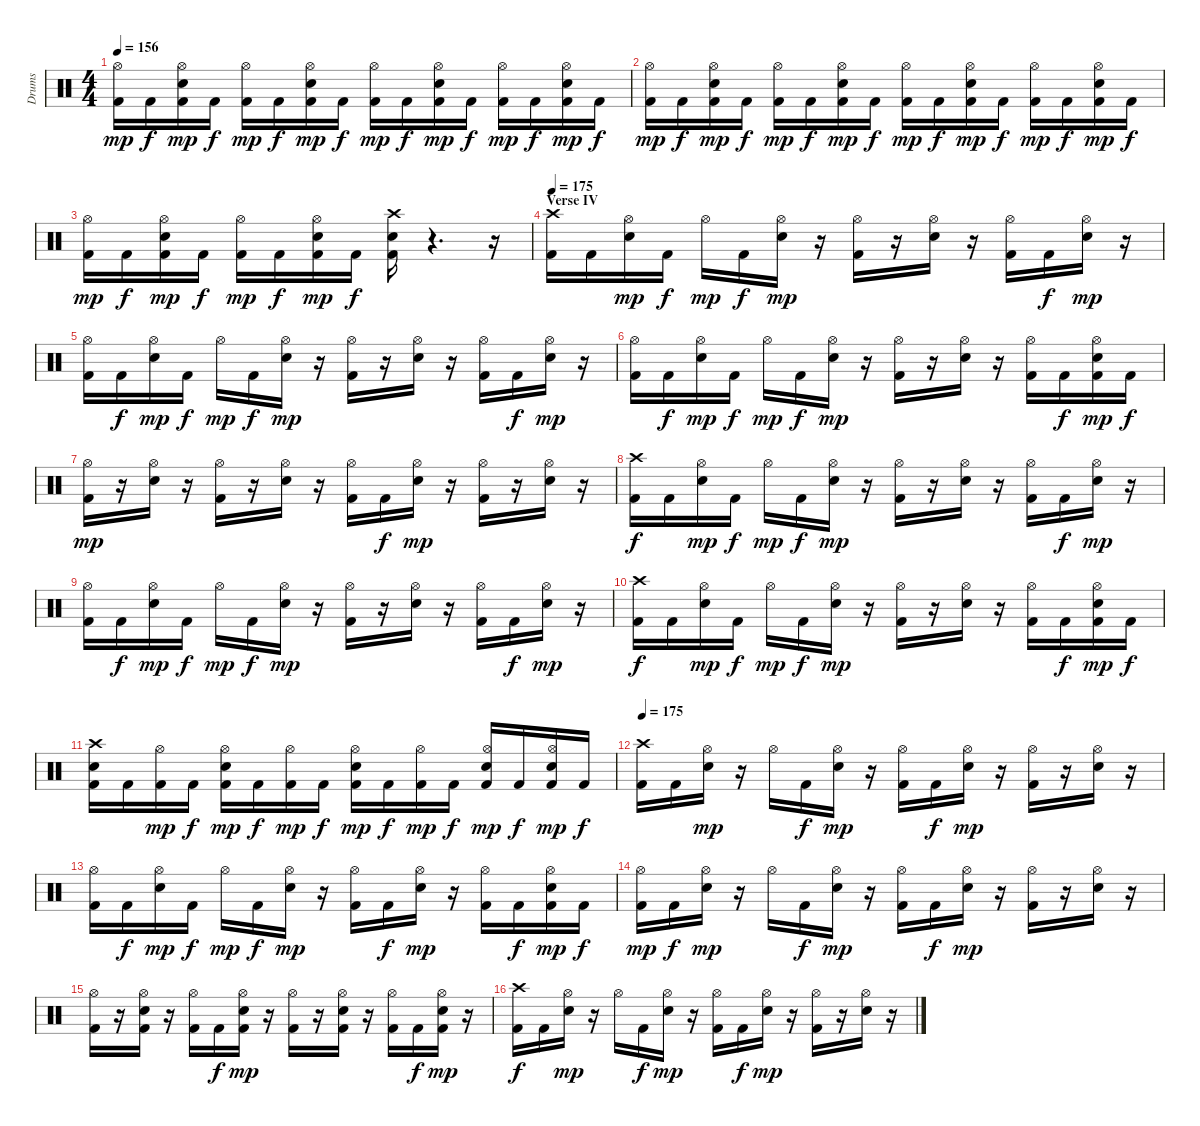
\track ("Drums" "Drums") {instrument percussion}
\staff {score}
\articulation defaults
\ts (4 4)
\tempo 156
\clef neutral
\ks c
("Kick (hit) 2" "Hi-Hat (open)").16{dy mp} "Kick (hit) 2".16{dy f} ("Snare (hit) 2" "Kick (hit) 2" "Hi-Hat (open)").16{dy mp} "Kick (hit) 2".16{dy f} ("Kick (hit) 2" "Hi-Hat (open)").16{dy mp} "Kick (hit) 2".16{dy f} ("Snare (hit) 2" "Kick (hit) 2" "Hi-Hat (open)").16{dy mp} "Kick (hit) 2".16{dy f} ("Kick (hit) 2" "Hi-Hat (open)").16{dy mp} "Kick (hit) 2".16{dy f} ("Snare (hit) 2" "Kick (hit) 2" "Hi-Hat (open)").16{dy mp} "Kick (hit) 2".16{dy f} ("Kick (hit) 2" "Hi-Hat (open)").16{dy mp} "Kick (hit) 2".16{dy f} ("Snare (hit) 2" "Kick (hit) 2" "Hi-Hat (open)").16{dy mp} "Kick (hit) 2".16{dy f} |
("Kick (hit) 2" "Hi-Hat (open)").16{dy mp} "Kick (hit) 2".16{dy f} ("Snare (hit) 2" "Kick (hit) 2" "Hi-Hat (open)").16{dy mp} "Kick (hit) 2".16{dy f} ("Kick (hit) 2" "Hi-Hat (open)").16{dy mp} "Kick (hit) 2".16{dy f} ("Snare (hit) 2" "Kick (hit) 2" "Hi-Hat (open)").16{dy mp} "Kick (hit) 2".16{dy f} ("Kick (hit) 2" "Hi-Hat (open)").16{dy mp} "Kick (hit) 2".16{dy f} ("Snare (hit) 2" "Kick (hit) 2" "Hi-Hat (open)").16{dy mp} "Kick (hit) 2".16{dy f} ("Kick (hit) 2" "Hi-Hat (open)").16{dy mp} "Kick (hit) 2".16{dy f} ("Snare (hit) 2" "Kick (hit) 2" "Hi-Hat (open)").16{dy mp} "Kick (hit) 2".16{dy f} |
("Kick (hit) 2" "Hi-Hat (open)").16{dy mp} "Kick (hit) 2".16{dy f} ("Snare (hit) 2" "Kick (hit) 2" "Hi-Hat (open)").16{dy mp} "Kick (hit) 2".16{dy f} ("Kick (hit) 2" "Hi-Hat (open)").16{dy mp} "Kick (hit) 2".16{dy f} ("Snare (hit) 2" "Kick (hit) 2" "Hi-Hat (open)").16{dy mp} "Kick (hit) 2".16{dy f} ("Kick (hit) 2" "Snare (hit) 2" "Crash high (hit)").16 r.4{d} r.16 |
\section ("" "Verse IV")
\tempo 175
("Kick (hit) 2" "Crash high (hit)").16 "Kick (hit) 2".16 ("Snare (hit) 2" "Hi-Hat (open)").16{dy mp} "Kick (hit) 2".16{dy f} "Hi-Hat (open)".16{dy mp} "Kick (hit) 2".16{dy f} ("Snare (hit) 2" "Hi-Hat (open)").16{dy mp} r.16 ("Kick (hit) 2" "Hi-Hat (open)").16 r.16 ("Snare (hit) 2" "Hi-Hat (open)").16 r.16 ("Kick (hit) 2" "Hi-Hat (open)").16 "Kick (hit) 2".16{dy f} ("Snare (hit) 2" "Hi-Hat (open)").16{dy mp} r.16 |
("Kick (hit) 2" "Hi-Hat (open)").16 "Kick (hit) 2".16{dy f} ("Snare (hit) 2" "Hi-Hat (open)").16{dy mp} "Kick (hit) 2".16{dy f} "Hi-Hat (open)".16{dy mp} "Kick (hit) 2".16{dy f} ("Snare (hit) 2" "Hi-Hat (open)").16{dy mp} r.16 ("Kick (hit) 2" "Hi-Hat (open)").16 r.16 ("Snare (hit) 2" "Hi-Hat (open)").16 r.16 ("Kick (hit) 2" "Hi-Hat (open)").16 "Kick (hit) 2".16{dy f} ("Snare (hit) 2" "Hi-Hat (open)").16{dy mp} r.16 |
("Kick (hit) 2" "Hi-Hat (open)").16 "Kick (hit) 2".16{dy f} ("Snare (hit) 2" "Hi-Hat (open)").16{dy mp} "Kick (hit) 2".16{dy f} "Hi-Hat (open)".16{dy mp} "Kick (hit) 2".16{dy f} ("Snare (hit) 2" "Hi-Hat (open)").16{dy mp} r.16 ("Kick (hit) 2" "Hi-Hat (open)").16 r.16 ("Snare (hit) 2" "Hi-Hat (open)").16 r.16 ("Kick (hit) 2" "Hi-Hat (open)").16 "Kick (hit) 2".16{dy f} ("Kick (hit) 2" "Snare (hit) 2" "Hi-Hat (open)").16{dy mp} "Kick (hit) 2".16{dy f} |
("Kick (hit) 2" "Hi-Hat (open)").16{dy mp} r.16 ("Snare (hit) 2" "Hi-Hat (open)").16 r.16 ("Kick (hit) 2" "Hi-Hat (open)").16 r.16 ("Snare (hit) 2" "Hi-Hat (open)").16 r.16 ("Kick (hit) 2" "Hi-Hat (open)").16 "Kick (hit) 2".16{dy f} ("Snare (hit) 2" "Hi-Hat (open)").16{dy mp} r.16 ("Kick (hit) 2" "Hi-Hat (open)").16 r.16 ("Snare (hit) 2" "Hi-Hat (open)").16 r.16 |
("Kick (hit) 2" "Crash high (hit)").16{dy f} "Kick (hit) 2".16 ("Snare (hit) 2" "Hi-Hat (open)").16{dy mp} "Kick (hit) 2".16{dy f} "Hi-Hat (open)".16{dy mp} "Kick (hit) 2".16{dy f} ("Snare (hit) 2" "Hi-Hat (open)").16{dy mp} r.16 ("Kick (hit) 2" "Hi-Hat (open)").16 r.16 ("Snare (hit) 2" "Hi-Hat (open)").16 r.16 ("Kick (hit) 2" "Hi-Hat (open)").16 "Kick (hit) 2".16{dy f} ("Snare (hit) 2" "Hi-Hat (open)").16{dy mp} r.16 |
("Kick (hit) 2" "Hi-Hat (open)").16 "Kick (hit) 2".16{dy f} ("Snare (hit) 2" "Hi-Hat (open)").16{dy mp} "Kick (hit) 2".16{dy f} "Hi-Hat (open)".16{dy mp} "Kick (hit) 2".16{dy f} ("Snare (hit) 2" "Hi-Hat (open)").16{dy mp} r.16 ("Kick (hit) 2" "Hi-Hat (open)").16 r.16 ("Snare (hit) 2" "Hi-Hat (open)").16 r.16 ("Kick (hit) 2" "Hi-Hat (open)").16 "Kick (hit) 2".16{dy f} ("Snare (hit) 2" "Hi-Hat (open)").16{dy mp} r.16 |
("Kick (hit) 2" "Crash high (hit)").16{dy f} "Kick (hit) 2".16 ("Snare (hit) 2" "Hi-Hat (open)").16{dy mp} "Kick (hit) 2".16{dy f} "Hi-Hat (open)".16{dy mp} "Kick (hit) 2".16{dy f} ("Snare (hit) 2" "Hi-Hat (open)").16{dy mp} r.16 ("Kick (hit) 2" "Hi-Hat (open)").16 r.16 ("Snare (hit) 2" "Hi-Hat (open)").16 r.16 ("Kick (hit) 2" "Hi-Hat (open)").16 "Kick (hit) 2".16{dy f} ("Kick (hit) 2" "Snare (hit) 2" "Hi-Hat (open)").16{dy mp} "Kick (hit) 2".16{dy f} |
("Snare (hit) 2" "Kick (hit) 2" "Crash high (hit)").16 "Kick (hit) 2".16 ("Kick (hit) 2" "Hi-Hat (open)").16{dy mp} "Kick (hit) 2".16{dy f} ("Snare (hit) 2" "Kick (hit) 2" "Hi-Hat (open)").16{dy mp} "Kick (hit) 2".16{dy f} ("Kick (hit) 2" "Hi-Hat (open)").16{dy mp} "Kick (hit) 2".16{dy f} ("Snare (hit) 2" "Kick (hit) 2" "Hi-Hat (open)").16{dy mp} "Kick (hit) 2".16{dy f} ("Kick (hit) 2" "Hi-Hat (open)").16{dy mp} "Kick (hit) 2".16{dy f} ("Snare (hit) 2" "Kick (hit) 2" "Hi-Hat (open)").16{dy mp} "Kick (hit) 2".16{dy f} ("Snare (hit) 2" "Kick (hit) 2" "Hi-Hat (open)").16{dy mp} "Kick (hit) 2".16{dy f} |
\tempo 175
("Kick (hit) 2" "Crash high (hit)").16 "Kick (hit) 2".16 ("Snare (hit) 2" "Hi-Hat (open)").16{dy mp} r.16 "Hi-Hat (open)".16 "Kick (hit) 2".16{dy f} ("Snare (hit) 2" "Hi-Hat (open)").16{dy mp} r.16 ("Kick (hit) 2" "Hi-Hat (open)").16 "Kick (hit) 2".16{dy f} ("Snare (hit) 2" "Hi-Hat (open)").16{dy mp} r.16 ("Kick (hit) 2" "Hi-Hat (open)").16 r.16 ("Snare (hit) 2" "Hi-Hat (open)").16 r.16 |
("Kick (hit) 2" "Hi-Hat (open)").16 "Kick (hit) 2".16{dy f} ("Snare (hit) 2" "Hi-Hat (open)").16{dy mp} "Kick (hit) 2".16{dy f} "Hi-Hat (open)".16{dy mp} "Kick (hit) 2".16{dy f} ("Snare (hit) 2" "Hi-Hat (open)").16{dy mp} r.16 ("Kick (hit) 2" "Hi-Hat (open)").16 "Kick (hit) 2".16{dy f} ("Snare (hit) 2" "Hi-Hat (open)").16{dy mp} r.16 ("Kick (hit) 2" "Hi-Hat (open)").16 "Kick (hit) 2".16{dy f} ("Snare (hit) 2" "Kick (hit) 2" "Hi-Hat (open)").16{dy mp} "Kick (hit) 2".16{dy f} |
("Kick (hit) 2" "Hi-Hat (open)").16{dy mp} "Kick (hit) 2".16{dy f} ("Snare (hit) 2" "Hi-Hat (open)").16{dy mp} r.16 "Hi-Hat (open)".16 "Kick (hit) 2".16{dy f} ("Snare (hit) 2" "Hi-Hat (open)").16{dy mp} r.16 ("Kick (hit) 2" "Hi-Hat (open)").16 "Kick (hit) 2".16{dy f} ("Snare (hit) 2" "Hi-Hat (open)").16{dy mp} r.16 ("Kick (hit) 2" "Hi-Hat (open)").16 r.16 ("Snare (hit) 2" "Hi-Hat (open)").16 r.16 |
("Kick (hit) 2" "Hi-Hat (open)").16 r.16 ("Snare (hit) 2" "Kick (hit) 2" "Hi-Hat (open)").16 r.16 ("Kick (hit) 2" "Hi-Hat (open)").16 "Kick (hit) 2".16{dy f} ("Snare (hit) 2" "Kick (hit) 2" "Hi-Hat (open)").16{dy mp} r.16 ("Kick (hit) 2" "Hi-Hat (open)").16 r.16 ("Snare (hit) 2" "Kick (hit) 2" "Hi-Hat (open)").16 r.16 ("Kick (hit) 2" "Hi-Hat (open)").16 "Kick (hit) 2".16{dy f} ("Snare (hit) 2" "Kick (hit) 2" "Hi-Hat (open)").16{dy mp} r.16 |
("Kick (hit) 2" "Crash high (hit)").16{dy f} "Kick (hit) 2".16 ("Snare (hit) 2" "Hi-Hat (open)").16{dy mp} r.16 "Hi-Hat (open)".16 "Kick (hit) 2".16{dy f} ("Snare (hit) 2" "Hi-Hat (open)").16{dy mp} r.16 ("Kick (hit) 2" "Hi-Hat (open)").16 "Kick (hit) 2".16{dy f} ("Snare (hit) 2" "Hi-Hat (open)").16{dy mp} r.16 ("Kick (hit) 2" "Hi-Hat (open)").16 r.16 ("Snare (hit) 2" "Hi-Hat (open)").16 r.16
